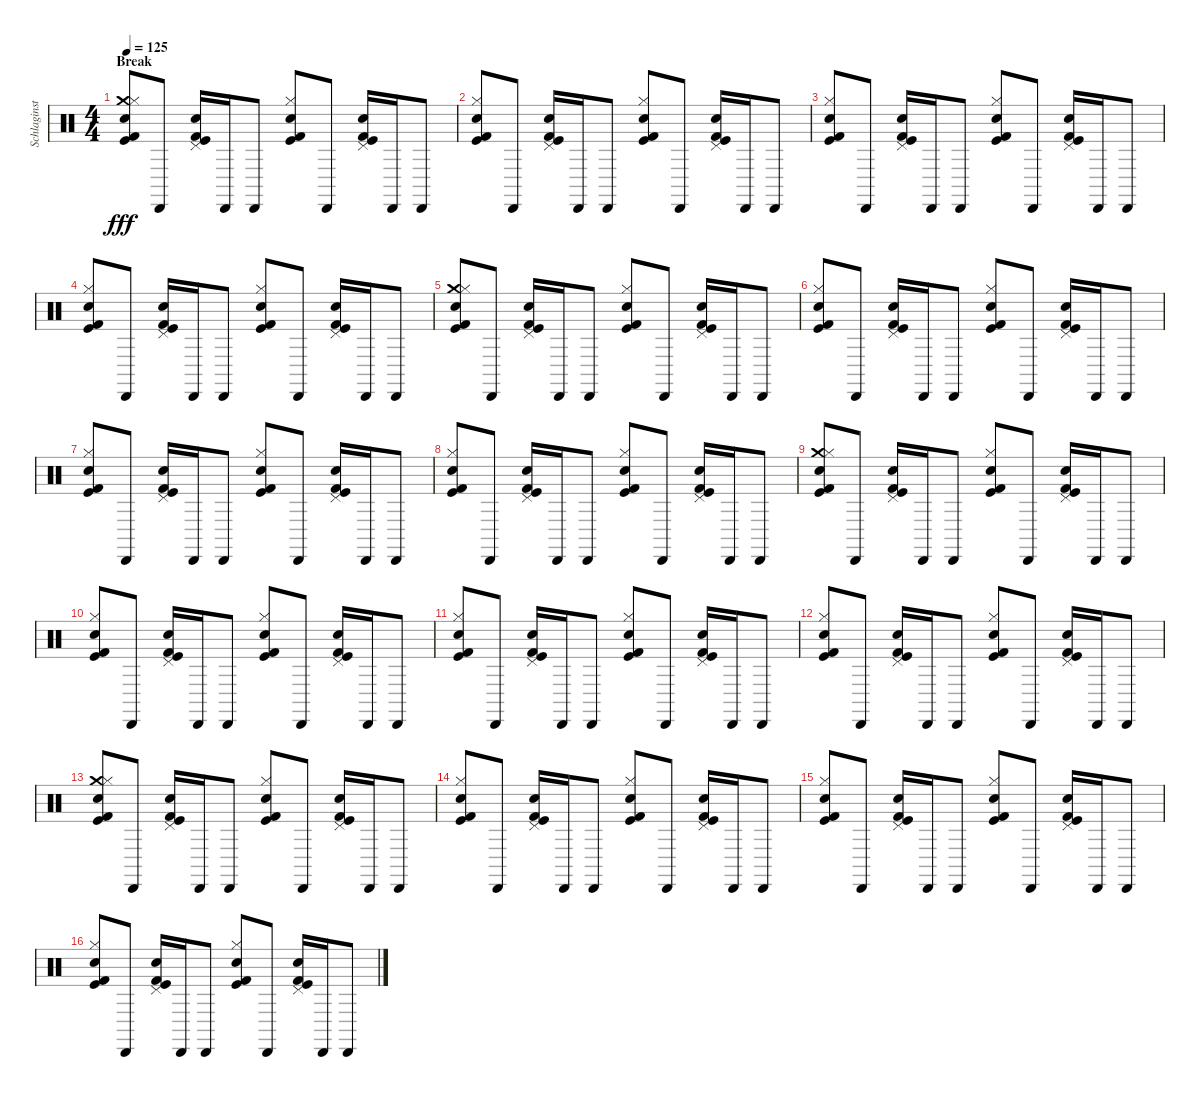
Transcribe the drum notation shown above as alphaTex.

\track ("Schlaginstrumente - Auswahl" "Schlaginst") {instrument percussion}
\staff {score}
\articulation defaults
\ts (4 4)
\section ("" "Break")
\tempo 125
\clef neutral
\ks c
("Crash medium (hit)" "Hi-Hat (closed)" "Hand Clap (hit)" "Kick (hit)" "Kick (hit) 2").8{dy fff} "Cabasa (hit)".8 ("Pedal Hi-Hat (hit)" "Hand Clap (hit)" "Kick (hit)" "Kick (hit) 2").16 "Cabasa (hit)".16 "Cabasa (hit)".8 ("Hi-Hat (closed)" "Hand Clap (hit)" "Kick (hit)" "Kick (hit) 2").8 "Cabasa (hit)".8 ("Pedal Hi-Hat (hit)" "Hand Clap (hit)" "Kick (hit)" "Kick (hit) 2").16 "Cabasa (hit)".16 "Cabasa (hit)".8 |
("Hi-Hat (closed)" "Hand Clap (hit)" "Kick (hit)" "Kick (hit) 2").8 "Cabasa (hit)".8 ("Pedal Hi-Hat (hit)" "Hand Clap (hit)" "Kick (hit)" "Kick (hit) 2").16 "Cabasa (hit)".16 "Cabasa (hit)".8 ("Hi-Hat (closed)" "Hand Clap (hit)" "Kick (hit)" "Kick (hit) 2").8 "Cabasa (hit)".8 ("Pedal Hi-Hat (hit)" "Hand Clap (hit)" "Kick (hit)" "Kick (hit) 2").16 "Cabasa (hit)".16 "Cabasa (hit)".8 |
("Hi-Hat (closed)" "Hand Clap (hit)" "Kick (hit)" "Kick (hit) 2").8 "Cabasa (hit)".8 ("Pedal Hi-Hat (hit)" "Hand Clap (hit)" "Kick (hit)" "Kick (hit) 2").16 "Cabasa (hit)".16 "Cabasa (hit)".8 ("Hi-Hat (closed)" "Hand Clap (hit)" "Kick (hit)" "Kick (hit) 2").8 "Cabasa (hit)".8 ("Pedal Hi-Hat (hit)" "Hand Clap (hit)" "Kick (hit)" "Kick (hit) 2").16 "Cabasa (hit)".16 "Cabasa (hit)".8 |
("Hi-Hat (closed)" "Hand Clap (hit)" "Kick (hit)" "Kick (hit) 2").8 "Cabasa (hit)".8 ("Pedal Hi-Hat (hit)" "Hand Clap (hit)" "Kick (hit)" "Kick (hit) 2").16 "Cabasa (hit)".16 "Cabasa (hit)".8 ("Hi-Hat (closed)" "Hand Clap (hit)" "Kick (hit)" "Kick (hit) 2").8 "Cabasa (hit)".8 ("Pedal Hi-Hat (hit)" "Hand Clap (hit)" "Kick (hit)" "Kick (hit) 2").16 "Cabasa (hit)".16 "Cabasa (hit)".8 |
("Crash medium (hit)" "Hi-Hat (closed)" "Hand Clap (hit)" "Kick (hit)" "Kick (hit) 2").8 "Cabasa (hit)".8 ("Pedal Hi-Hat (hit)" "Hand Clap (hit)" "Kick (hit)" "Kick (hit) 2").16 "Cabasa (hit)".16 "Cabasa (hit)".8 ("Hi-Hat (closed)" "Hand Clap (hit)" "Kick (hit)" "Kick (hit) 2").8 "Cabasa (hit)".8 ("Pedal Hi-Hat (hit)" "Hand Clap (hit)" "Kick (hit)" "Kick (hit) 2").16 "Cabasa (hit)".16 "Cabasa (hit)".8 |
("Hi-Hat (closed)" "Hand Clap (hit)" "Kick (hit)" "Kick (hit) 2").8 "Cabasa (hit)".8 ("Pedal Hi-Hat (hit)" "Hand Clap (hit)" "Kick (hit)" "Kick (hit) 2").16 "Cabasa (hit)".16 "Cabasa (hit)".8 ("Hi-Hat (closed)" "Hand Clap (hit)" "Kick (hit)" "Kick (hit) 2").8 "Cabasa (hit)".8 ("Pedal Hi-Hat (hit)" "Hand Clap (hit)" "Kick (hit)" "Kick (hit) 2").16 "Cabasa (hit)".16 "Cabasa (hit)".8 |
("Hi-Hat (closed)" "Hand Clap (hit)" "Kick (hit)" "Kick (hit) 2").8 "Cabasa (hit)".8 ("Pedal Hi-Hat (hit)" "Hand Clap (hit)" "Kick (hit)" "Kick (hit) 2").16 "Cabasa (hit)".16 "Cabasa (hit)".8 ("Hi-Hat (closed)" "Hand Clap (hit)" "Kick (hit)" "Kick (hit) 2").8 "Cabasa (hit)".8 ("Pedal Hi-Hat (hit)" "Hand Clap (hit)" "Kick (hit)" "Kick (hit) 2").16 "Cabasa (hit)".16 "Cabasa (hit)".8 |
("Hi-Hat (closed)" "Hand Clap (hit)" "Kick (hit)" "Kick (hit) 2").8 "Cabasa (hit)".8 ("Pedal Hi-Hat (hit)" "Hand Clap (hit)" "Kick (hit)" "Kick (hit) 2").16 "Cabasa (hit)".16 "Cabasa (hit)".8 ("Hi-Hat (closed)" "Hand Clap (hit)" "Kick (hit)" "Kick (hit) 2").8 "Cabasa (hit)".8 ("Pedal Hi-Hat (hit)" "Hand Clap (hit)" "Kick (hit)" "Kick (hit) 2").16 "Cabasa (hit)".16 "Cabasa (hit)".8 |
("Crash medium (hit)" "Hi-Hat (closed)" "Hand Clap (hit)" "Kick (hit)" "Kick (hit) 2").8 "Cabasa (hit)".8 ("Pedal Hi-Hat (hit)" "Hand Clap (hit)" "Kick (hit)" "Kick (hit) 2").16 "Cabasa (hit)".16 "Cabasa (hit)".8 ("Hi-Hat (closed)" "Hand Clap (hit)" "Kick (hit)" "Kick (hit) 2").8 "Cabasa (hit)".8 ("Pedal Hi-Hat (hit)" "Hand Clap (hit)" "Kick (hit)" "Kick (hit) 2").16 "Cabasa (hit)".16 "Cabasa (hit)".8 |
("Hi-Hat (closed)" "Hand Clap (hit)" "Kick (hit)" "Kick (hit) 2").8 "Cabasa (hit)".8 ("Pedal Hi-Hat (hit)" "Hand Clap (hit)" "Kick (hit)" "Kick (hit) 2").16 "Cabasa (hit)".16 "Cabasa (hit)".8 ("Hi-Hat (closed)" "Hand Clap (hit)" "Kick (hit)" "Kick (hit) 2").8 "Cabasa (hit)".8 ("Pedal Hi-Hat (hit)" "Hand Clap (hit)" "Kick (hit)" "Kick (hit) 2").16 "Cabasa (hit)".16 "Cabasa (hit)".8 |
("Hi-Hat (closed)" "Hand Clap (hit)" "Kick (hit)" "Kick (hit) 2").8 "Cabasa (hit)".8 ("Pedal Hi-Hat (hit)" "Hand Clap (hit)" "Kick (hit)" "Kick (hit) 2").16 "Cabasa (hit)".16 "Cabasa (hit)".8 ("Hi-Hat (closed)" "Hand Clap (hit)" "Kick (hit)" "Kick (hit) 2").8 "Cabasa (hit)".8 ("Pedal Hi-Hat (hit)" "Hand Clap (hit)" "Kick (hit)" "Kick (hit) 2").16 "Cabasa (hit)".16 "Cabasa (hit)".8 |
("Hi-Hat (closed)" "Hand Clap (hit)" "Kick (hit)" "Kick (hit) 2").8 "Cabasa (hit)".8 ("Pedal Hi-Hat (hit)" "Hand Clap (hit)" "Kick (hit)" "Kick (hit) 2").16 "Cabasa (hit)".16 "Cabasa (hit)".8 ("Hi-Hat (closed)" "Hand Clap (hit)" "Kick (hit)" "Kick (hit) 2").8 "Cabasa (hit)".8 ("Pedal Hi-Hat (hit)" "Hand Clap (hit)" "Kick (hit)" "Kick (hit) 2").16 "Cabasa (hit)".16 "Cabasa (hit)".8 |
("Crash medium (hit)" "Hi-Hat (closed)" "Hand Clap (hit)" "Kick (hit)" "Kick (hit) 2").8 "Cabasa (hit)".8 ("Pedal Hi-Hat (hit)" "Hand Clap (hit)" "Kick (hit)" "Kick (hit) 2").16 "Cabasa (hit)".16 "Cabasa (hit)".8 ("Hi-Hat (closed)" "Hand Clap (hit)" "Kick (hit)" "Kick (hit) 2").8 "Cabasa (hit)".8 ("Pedal Hi-Hat (hit)" "Hand Clap (hit)" "Kick (hit)" "Kick (hit) 2").16 "Cabasa (hit)".16 "Cabasa (hit)".8 |
("Hi-Hat (closed)" "Hand Clap (hit)" "Kick (hit)" "Kick (hit) 2").8 "Cabasa (hit)".8 ("Pedal Hi-Hat (hit)" "Hand Clap (hit)" "Kick (hit)" "Kick (hit) 2").16 "Cabasa (hit)".16 "Cabasa (hit)".8 ("Hi-Hat (closed)" "Hand Clap (hit)" "Kick (hit)" "Kick (hit) 2").8 "Cabasa (hit)".8 ("Pedal Hi-Hat (hit)" "Hand Clap (hit)" "Kick (hit)" "Kick (hit) 2").16 "Cabasa (hit)".16 "Cabasa (hit)".8 |
("Hi-Hat (closed)" "Hand Clap (hit)" "Kick (hit)" "Kick (hit) 2").8 "Cabasa (hit)".8 ("Pedal Hi-Hat (hit)" "Hand Clap (hit)" "Kick (hit)" "Kick (hit) 2").16 "Cabasa (hit)".16 "Cabasa (hit)".8 ("Hi-Hat (closed)" "Hand Clap (hit)" "Kick (hit)" "Kick (hit) 2").8 "Cabasa (hit)".8 ("Pedal Hi-Hat (hit)" "Hand Clap (hit)" "Kick (hit)" "Kick (hit) 2").16 "Cabasa (hit)".16 "Cabasa (hit)".8 |
("Hi-Hat (closed)" "Hand Clap (hit)" "Kick (hit)" "Kick (hit) 2").8 "Cabasa (hit)".8 ("Pedal Hi-Hat (hit)" "Hand Clap (hit)" "Kick (hit)" "Kick (hit) 2").16 "Cabasa (hit)".16 "Cabasa (hit)".8 ("Hi-Hat (closed)" "Hand Clap (hit)" "Kick (hit)" "Kick (hit) 2").8 "Cabasa (hit)".8 ("Pedal Hi-Hat (hit)" "Hand Clap (hit)" "Kick (hit)" "Kick (hit) 2").16 "Cabasa (hit)".16 "Cabasa (hit)".8
